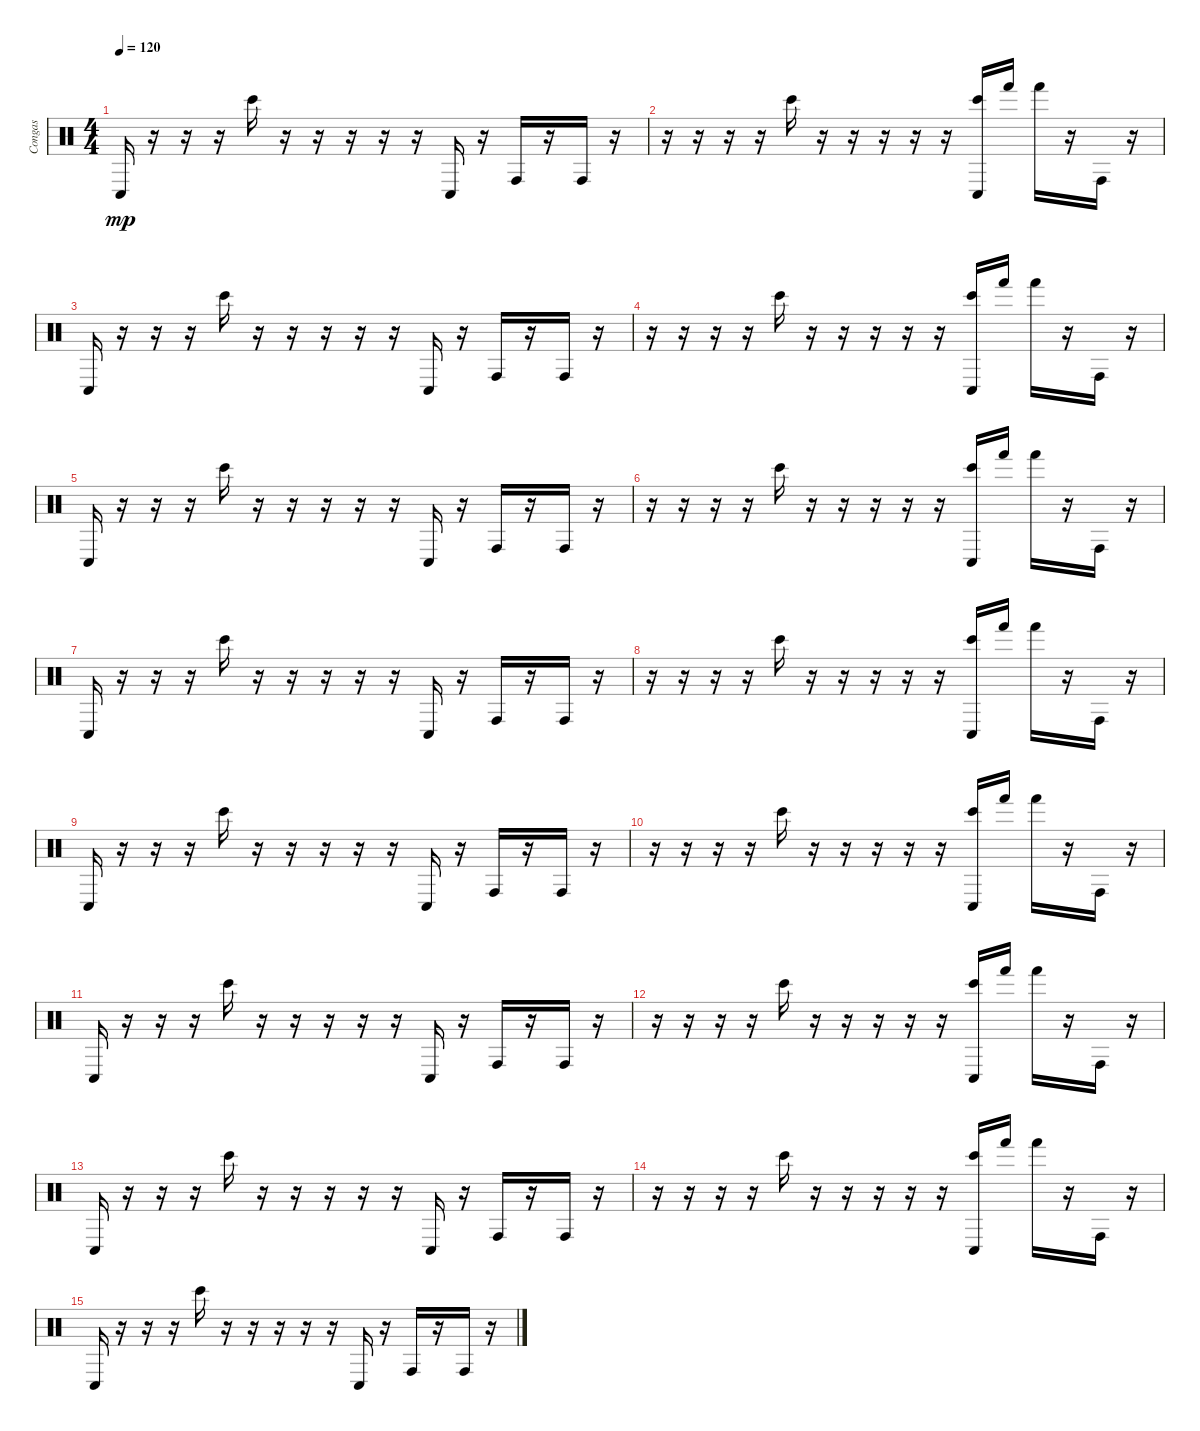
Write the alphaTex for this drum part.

\track ("Congas" "Congas") {instrument percussion}
\staff {score}
\articulation defaults
\ts (4 4)
\tempo 120
\clef neutral
\ks c "Conga low (hit)".16{dy mp}
r.16 r.16 r.16 "Bongo High (hit)".16 r.16 r.16 r.16 r.16 r.16 "Conga low (hit)".16 r.16 "Conga high (hit)".16 r.16 "Conga high (hit)".16 r.16 |
r.16 r.16 r.16 r.16 "Bongo High (hit)".16 r.16 r.16 r.16 r.16 r.16 ("Bongo High (hit)" "Conga low (hit)").16 "Hand (hit)".16 "Hand (hit)".16 r.16 "Conga high (hit)".16 r.16 |
"Conga low (hit)".16 r.16 r.16 r.16 "Bongo High (hit)".16 r.16 r.16 r.16 r.16 r.16 "Conga low (hit)".16 r.16 "Conga high (hit)".16 r.16 "Conga high (hit)".16 r.16 |
r.16 r.16 r.16 r.16 "Bongo High (hit)".16 r.16 r.16 r.16 r.16 r.16 ("Bongo High (hit)" "Conga low (hit)").16 "Hand (hit)".16 "Hand (hit)".16 r.16 "Conga high (hit)".16 r.16 |
"Conga low (hit)".16 r.16 r.16 r.16 "Bongo High (hit)".16 r.16 r.16 r.16 r.16 r.16 "Conga low (hit)".16 r.16 "Conga high (hit)".16 r.16 "Conga high (hit)".16 r.16 |
r.16 r.16 r.16 r.16 "Bongo High (hit)".16 r.16 r.16 r.16 r.16 r.16 ("Bongo High (hit)" "Conga low (hit)").16 "Hand (hit)".16 "Hand (hit)".16 r.16 "Conga high (hit)".16 r.16 |
"Conga low (hit)".16 r.16 r.16 r.16 "Bongo High (hit)".16 r.16 r.16 r.16 r.16 r.16 "Conga low (hit)".16 r.16 "Conga high (hit)".16 r.16 "Conga high (hit)".16 r.16 |
r.16 r.16 r.16 r.16 "Bongo High (hit)".16 r.16 r.16 r.16 r.16 r.16 ("Bongo High (hit)" "Conga low (hit)").16 "Hand (hit)".16 "Hand (hit)".16 r.16 "Conga high (hit)".16 r.16 |
"Conga low (hit)".16 r.16 r.16 r.16 "Bongo High (hit)".16 r.16 r.16 r.16 r.16 r.16 "Conga low (hit)".16 r.16 "Conga high (hit)".16 r.16 "Conga high (hit)".16 r.16 |
r.16 r.16 r.16 r.16 "Bongo High (hit)".16 r.16 r.16 r.16 r.16 r.16 ("Bongo High (hit)" "Conga low (hit)").16 "Hand (hit)".16 "Hand (hit)".16 r.16 "Conga high (hit)".16 r.16 |
"Conga low (hit)".16 r.16 r.16 r.16 "Bongo High (hit)".16 r.16 r.16 r.16 r.16 r.16 "Conga low (hit)".16 r.16 "Conga high (hit)".16 r.16 "Conga high (hit)".16 r.16 |
r.16 r.16 r.16 r.16 "Bongo High (hit)".16 r.16 r.16 r.16 r.16 r.16 ("Bongo High (hit)" "Conga low (hit)").16 "Hand (hit)".16 "Hand (hit)".16 r.16 "Conga high (hit)".16 r.16 |
"Conga low (hit)".16 r.16 r.16 r.16 "Bongo High (hit)".16 r.16 r.16 r.16 r.16 r.16 "Conga low (hit)".16 r.16 "Conga high (hit)".16 r.16 "Conga high (hit)".16 r.16 |
r.16 r.16 r.16 r.16 "Bongo High (hit)".16 r.16 r.16 r.16 r.16 r.16 ("Bongo High (hit)" "Conga low (hit)").16 "Hand (hit)".16 "Hand (hit)".16 r.16 "Conga high (hit)".16 r.16 |
"Conga low (hit)".16 r.16 r.16 r.16 "Bongo High (hit)".16 r.16 r.16 r.16 r.16 r.16 "Conga low (hit)".16 r.16 "Conga high (hit)".16 r.16 "Conga high (hit)".16 r.16
